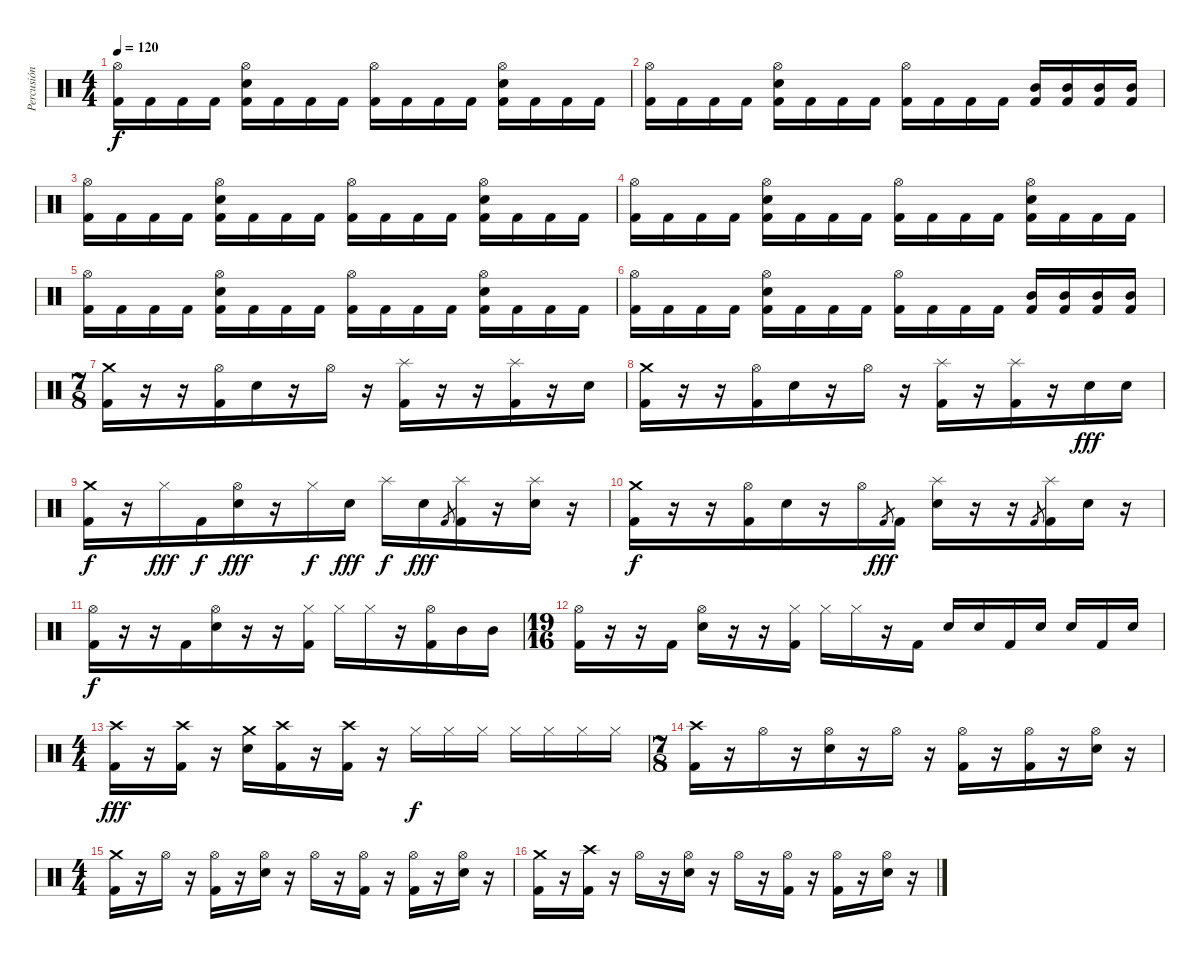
\track ("Percusión" "Percusión") {instrument percussion}
\staff {score}
\articulation defaults
\ts (4 4)
\tempo 120
\clef neutral
\ks c
("Hi-Hat (open)" "Kick (hit) 2").16{dy f} "Kick (hit) 2".16 "Kick (hit) 2".16 "Kick (hit) 2".16 ("Hi-Hat (open)" "Electric Snare (hit)" "Kick (hit) 2").16 "Kick (hit) 2".16 "Kick (hit) 2".16 "Kick (hit) 2".16 ("Hi-Hat (open)" "Kick (hit) 2").16 "Kick (hit) 2".16 "Kick (hit) 2".16 "Kick (hit) 2".16 ("Hi-Hat (open)" "Electric Snare (hit)" "Kick (hit) 2").16 "Kick (hit) 2".16 "Kick (hit) 2".16 "Kick (hit) 2".16 |
("Hi-Hat (open)" "Kick (hit) 2").16 "Kick (hit) 2".16 "Kick (hit) 2".16 "Kick (hit) 2".16 ("Hi-Hat (open)" "Electric Snare (hit)" "Kick (hit) 2").16 "Kick (hit) 2".16 "Kick (hit) 2".16 "Kick (hit) 2".16 ("Hi-Hat (open)" "Kick (hit) 2").16 "Kick (hit) 2".16 "Kick (hit) 2".16 "Kick (hit) 2".16 ("Mid Tom (hit)" "Kick (hit) 2").16 ("Mid Tom (hit)" "Kick (hit) 2").16 ("Mid Tom (hit)" "Kick (hit) 2").16 ("Mid Tom (hit)" "Kick (hit) 2").16 |
("Hi-Hat (open)" "Kick (hit) 2").16 "Kick (hit) 2".16 "Kick (hit) 2".16 "Kick (hit) 2".16 ("Hi-Hat (open)" "Electric Snare (hit)" "Kick (hit) 2").16 "Kick (hit) 2".16 "Kick (hit) 2".16 "Kick (hit) 2".16 ("Hi-Hat (open)" "Kick (hit) 2").16 "Kick (hit) 2".16 "Kick (hit) 2".16 "Kick (hit) 2".16 ("Hi-Hat (open)" "Electric Snare (hit)" "Kick (hit) 2").16 "Kick (hit) 2".16 "Kick (hit) 2".16 "Kick (hit) 2".16 |
("Hi-Hat (open)" "Kick (hit) 2").16 "Kick (hit) 2".16 "Kick (hit) 2".16 "Kick (hit) 2".16 ("Hi-Hat (open)" "Electric Snare (hit)" "Kick (hit) 2").16 "Kick (hit) 2".16 "Kick (hit) 2".16 "Kick (hit) 2".16 ("Hi-Hat (open)" "Kick (hit) 2").16 "Kick (hit) 2".16 "Kick (hit) 2".16 "Kick (hit) 2".16 ("Hi-Hat (open)" "Electric Snare (hit)" "Kick (hit) 2").16 "Kick (hit) 2".16 "Kick (hit) 2".16 "Kick (hit) 2".16 |
("Hi-Hat (open)" "Kick (hit) 2").16 "Kick (hit) 2".16 "Kick (hit) 2".16 "Kick (hit) 2".16 ("Hi-Hat (open)" "Electric Snare (hit)" "Kick (hit) 2").16 "Kick (hit) 2".16 "Kick (hit) 2".16 "Kick (hit) 2".16 ("Hi-Hat (open)" "Kick (hit) 2").16 "Kick (hit) 2".16 "Kick (hit) 2".16 "Kick (hit) 2".16 ("Hi-Hat (open)" "Electric Snare (hit)" "Kick (hit) 2").16 "Kick (hit) 2".16 "Kick (hit) 2".16 "Kick (hit) 2".16 |
("Hi-Hat (open)" "Kick (hit) 2").16 "Kick (hit) 2".16 "Kick (hit) 2".16 "Kick (hit) 2".16 ("Hi-Hat (open)" "Electric Snare (hit)" "Kick (hit) 2").16 "Kick (hit) 2".16 "Kick (hit) 2".16 "Kick (hit) 2".16 ("Hi-Hat (open)" "Kick (hit) 2").16 "Kick (hit) 2".16 "Kick (hit) 2".16 "Kick (hit) 2".16 ("Mid Tom (hit)" "Kick (hit) 2").16 ("Mid Tom (hit)" "Kick (hit) 2").16 ("Mid Tom (hit)" "Kick (hit) 2").16 ("Mid Tom (hit)" "Kick (hit) 2").16 |
\ts (7 8)
("Crash medium (hit)" "Kick (hit) 2").16 r.16 r.16 ("Hi-Hat (open)" "Kick (hit) 2").16 "Electric Snare (hit)".16 r.16 "Hi-Hat (open)".16 r.16 ("Splash (hit)" "Kick (hit) 2").16 r.16 r.16 ("Splash (hit)" "Kick (hit) 2").16 r.16 "Electric Snare (hit)".16 |
("Crash medium (hit)" "Kick (hit) 2").16 r.16 r.16 ("Hi-Hat (open)" "Kick (hit) 2").16 "Electric Snare (hit)".16 r.16 "Hi-Hat (open)".16 r.16 ("Splash (hit)" "Kick (hit) 2").16 r.16 ("Splash (hit)" "Kick (hit) 2").16 r.16 "Electric Snare (hit)".16{dy fff} "Electric Snare (hit)".16 |
("Crash medium (hit)" "Kick (hit) 2").16{dy f} r.16 "Hi-Hat (closed)".16{dy fff} "Kick (hit) 2".16{dy f} ("Hi-Hat (open)" "Electric Snare (hit)").16{dy fff} r.16 "Hi-Hat (closed)".16{dy f} "Electric Snare (hit)".16{dy fff} "Splash (hit)".16{dy f} "Electric Snare (hit)".16{dy fff} "Kick (hit) 2".8{gr} ("Splash (hit)" "Kick (hit) 2").16 r.16 ("Splash (hit)" "Electric Snare (hit)").16 r.16 |
("Crash medium (hit)" "Kick (hit) 2").16{dy f} r.16 r.16 ("Hi-Hat (open)" "Kick (hit) 2").16 "Electric Snare (hit)".16 r.16 "Hi-Hat (open)".16 "Kick (hit) 2".8{gr dy fff} "Kick (hit) 2".16 ("Splash (hit)" "Electric Snare (hit)").16 r.16 r.16 "Kick (hit) 2".8{gr} ("Splash (hit)" "Kick (hit) 2").16 "Electric Snare (hit)".16 r.16 |
("Hi-Hat (open)" "Kick (hit) 2").16{dy f} r.16 r.16 "Kick (hit) 2".16 ("Hi-Hat (open)" "Electric Snare (hit)").16 r.16 r.16 ("Hi-Hat (closed)" "Kick (hit) 2").16 "Hi-Hat (closed)".16 "Hi-Hat (closed)".16 r.16 ("Hi-Hat (open)" "Kick (hit) 2").16 "Mid Tom (hit)".16 "Mid Tom (hit)".16 |
\ts (19 16)
("Hi-Hat (open)" "Kick (hit) 2").16 r.16 r.16 "Kick (hit) 2".16 ("Hi-Hat (open)" "Electric Snare (hit)").16 r.16 r.16 ("Hi-Hat (closed)" "Kick (hit) 2").16 "Hi-Hat (closed)".16 "Hi-Hat (closed)".16 r.16 "Kick (hit) 2".16 "Electric Snare (hit)".16 "Electric Snare (hit)".16 "Kick (hit) 2".16 "Electric Snare (hit)".16 "Electric Snare (hit)".16 "Kick (hit) 2".16 "Electric Snare (hit)".16 |
\ts (4 4)
("Crash high (hit)" "Kick (hit) 2").16{dy fff} r.16 ("Crash high (hit)" "Kick (hit) 2").16 r.16 ("Crash medium (hit)" "Electric Snare (hit)").16 ("Crash high (hit)" "Kick (hit) 2").16 r.16 ("Crash high (hit)" "Kick (hit) 2").16 r.16 "Hi-Hat (closed)".16{dy f} "Hi-Hat (closed)".16 "Hi-Hat (closed)".16 "Hi-Hat (closed)".16 "Hi-Hat (closed)".16 "Hi-Hat (closed)".16 "Hi-Hat (closed)".16 |
\ts (7 8)
("Crash high (hit)" "Kick (hit) 2").16 r.16 "Hi-Hat (open)".16 r.16 ("Hi-Hat (open)" "Electric Snare (hit)").16 r.16 "Hi-Hat (open)".16 r.16 ("Hi-Hat (open)" "Kick (hit) 2").16 r.16 ("Hi-Hat (open)" "Kick (hit) 2").16 r.16 ("Hi-Hat (open)" "Electric Snare (hit)").16 r.16 |
\ts (4 4)
("Crash medium (hit)" "Kick (hit) 2").16 r.16 "Hi-Hat (open)".16 r.16 ("Hi-Hat (open)" "Kick (hit) 2").16 r.16 ("Hi-Hat (open)" "Electric Snare (hit)").16 r.16 "Hi-Hat (open)".16 r.16 ("Hi-Hat (open)" "Kick (hit) 2").16 r.16 ("Hi-Hat (open)" "Kick (hit) 2").16 r.16 ("Hi-Hat (open)" "Electric Snare (hit)").16 r.16 |
("Crash medium (hit)" "Kick (hit) 2").16 r.16 ("Crash high (hit)" "Kick (hit) 2").16 r.16 "Hi-Hat (open)".16 r.16 ("Hi-Hat (open)" "Electric Snare (hit)").16 r.16 "Hi-Hat (open)".16 r.16 ("Hi-Hat (open)" "Kick (hit) 2").16 r.16 ("Hi-Hat (open)" "Kick (hit) 2").16 r.16 ("Hi-Hat (open)" "Electric Snare (hit)").16 r.16
